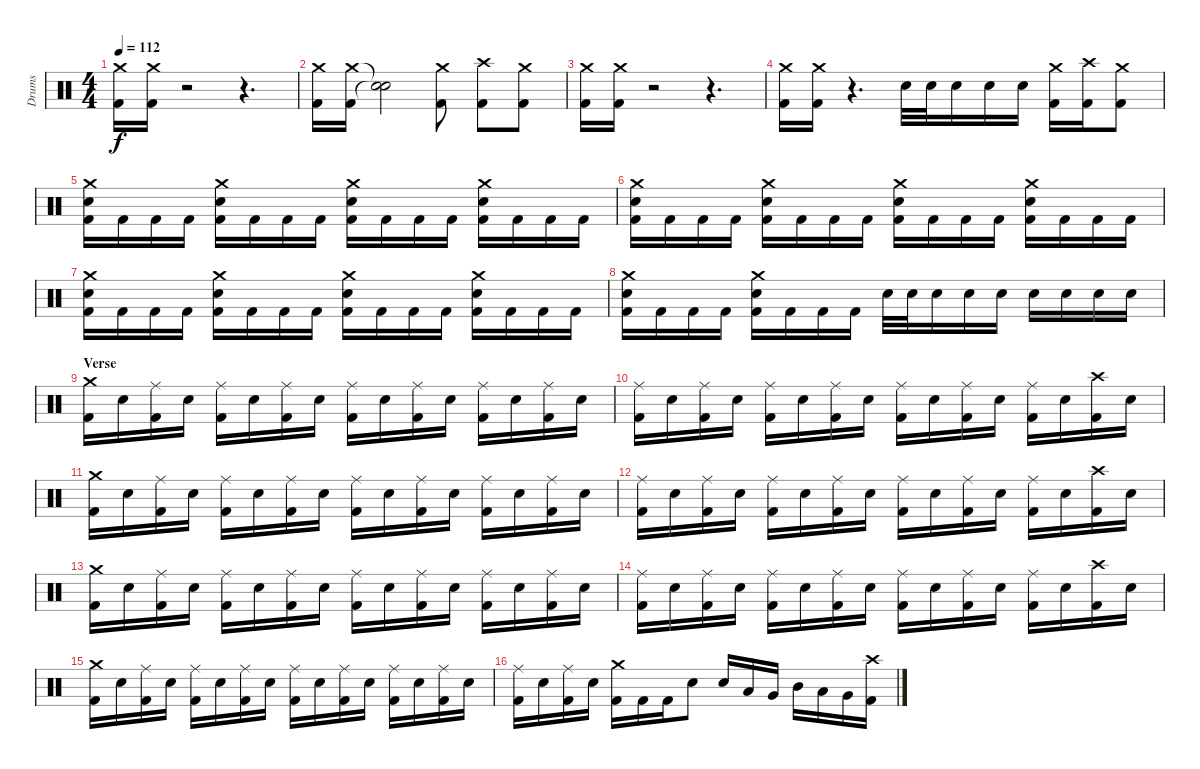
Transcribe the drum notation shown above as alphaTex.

\track ("Drums" "Drums") {instrument percussion}
\staff {score}
\articulation defaults
\ts (4 4)
\tempo 112
\clef neutral
\ks c
("Crash medium (hit)" "Kick (hit) 2").16{dy f} ("Crash medium (hit)" "Kick (hit) 2").16 r.2 r.4{d} |
("Crash medium (hit)" "Kick (hit) 2").16 ("Crash medium (hit)" "Kick (hit) 2").16 ("Snare (hit)"{t} "Snare (hit)"{t}).2 ("Crash medium (hit)" "Kick (hit) 2").8 ("Crash high (hit)" "Kick (hit) 2").8 ("Crash medium (hit)" "Kick (hit) 2").8 |
("Crash medium (hit)" "Kick (hit) 2").16 ("Crash medium (hit)" "Kick (hit) 2").16 r.2 r.4{d} |
("Crash medium (hit)" "Kick (hit) 2").16 ("Crash medium (hit)" "Kick (hit) 2").16 r.4{d} "Electric Snare (hit)".32 "Electric Snare (hit)".32 "Electric Snare (hit)".16 "Electric Snare (hit)".16 "Electric Snare (hit)".16 ("Crash medium (hit)" "Kick (hit) 2").16 ("Crash high (hit)" "Kick (hit) 2").16 ("Crash medium (hit)" "Kick (hit) 2").8 |
("Crash medium (hit)" "Electric Snare (hit)" "Kick (hit) 2").16 "Kick (hit) 2".16 "Kick (hit) 2".16 "Kick (hit) 2".16 ("Crash medium (hit)" "Electric Snare (hit)" "Kick (hit) 2").16 "Kick (hit) 2".16 "Kick (hit) 2".16 "Kick (hit) 2".16 ("Crash medium (hit)" "Electric Snare (hit)" "Kick (hit) 2").16 "Kick (hit) 2".16 "Kick (hit) 2".16 "Kick (hit) 2".16 ("Crash medium (hit)" "Electric Snare (hit)" "Kick (hit) 2").16 "Kick (hit) 2".16 "Kick (hit) 2".16 "Kick (hit) 2".16 |
("Crash medium (hit)" "Electric Snare (hit)" "Kick (hit) 2").16 "Kick (hit) 2".16 "Kick (hit) 2".16 "Kick (hit) 2".16 ("Crash medium (hit)" "Electric Snare (hit)" "Kick (hit) 2").16 "Kick (hit) 2".16 "Kick (hit) 2".16 "Kick (hit) 2".16 ("Crash medium (hit)" "Electric Snare (hit)" "Kick (hit) 2").16 "Kick (hit) 2".16 "Kick (hit) 2".16 "Kick (hit) 2".16 ("Crash medium (hit)" "Electric Snare (hit)" "Kick (hit) 2").16 "Kick (hit) 2".16 "Kick (hit) 2".16 "Kick (hit) 2".16 |
("Crash medium (hit)" "Electric Snare (hit)" "Kick (hit) 2").16 "Kick (hit) 2".16 "Kick (hit) 2".16 "Kick (hit) 2".16 ("Crash medium (hit)" "Electric Snare (hit)" "Kick (hit) 2").16 "Kick (hit) 2".16 "Kick (hit) 2".16 "Kick (hit) 2".16 ("Crash medium (hit)" "Electric Snare (hit)" "Kick (hit) 2").16 "Kick (hit) 2".16 "Kick (hit) 2".16 "Kick (hit) 2".16 ("Crash medium (hit)" "Electric Snare (hit)" "Kick (hit) 2").16 "Kick (hit) 2".16 "Kick (hit) 2".16 "Kick (hit) 2".16 |
("Crash medium (hit)" "Electric Snare (hit)" "Kick (hit) 2").16 "Kick (hit) 2".16 "Kick (hit) 2".16 "Kick (hit) 2".16 ("Crash medium (hit)" "Electric Snare (hit)" "Kick (hit) 2").16 "Kick (hit) 2".16 "Kick (hit) 2".16 "Kick (hit) 2".16 "Electric Snare (hit)".32 "Electric Snare (hit)".32 "Electric Snare (hit)".16 "Electric Snare (hit)".16 "Electric Snare (hit)".16 "Electric Snare (hit)".16 "Electric Snare (hit)".16 "Electric Snare (hit)".16 "Electric Snare (hit)".16 |
\section ("" "Verse")
("Crash medium (hit)" "Kick (hit) 2").16 "Electric Snare (hit)".16 ("Ride (middle)" "Kick (hit) 2").16 "Electric Snare (hit)".16 ("Ride (middle)" "Kick (hit) 2").16 "Electric Snare (hit)".16 ("Ride (middle)" "Kick (hit) 2").16 "Electric Snare (hit)".16 ("Ride (middle)" "Kick (hit) 2").16 "Electric Snare (hit)".16 ("Ride (middle)" "Kick (hit) 2").16 "Electric Snare (hit)".16 ("Ride (middle)" "Kick (hit) 2").16 "Electric Snare (hit)".16 ("Ride (middle)" "Kick (hit) 2").16 "Electric Snare (hit)".16 |
("Ride (middle)" "Kick (hit) 2").16 "Electric Snare (hit)".16 ("Ride (middle)" "Kick (hit) 2").16 "Electric Snare (hit)".16 ("Ride (middle)" "Kick (hit) 2").16 "Electric Snare (hit)".16 ("Ride (middle)" "Kick (hit) 2").16 "Electric Snare (hit)".16 ("Ride (middle)" "Kick (hit) 2").16 "Electric Snare (hit)".16 ("Ride (middle)" "Kick (hit) 2").16 "Electric Snare (hit)".16 ("Ride (middle)" "Kick (hit) 2").16 "Electric Snare (hit)".16 ("Crash high (hit)" "Kick (hit) 2").16 "Electric Snare (hit)".16 |
("Crash medium (hit)" "Kick (hit) 2").16 "Electric Snare (hit)".16 ("Ride (middle)" "Kick (hit) 2").16 "Electric Snare (hit)".16 ("Ride (middle)" "Kick (hit) 2").16 "Electric Snare (hit)".16 ("Ride (middle)" "Kick (hit) 2").16 "Electric Snare (hit)".16 ("Ride (middle)" "Kick (hit) 2").16 "Electric Snare (hit)".16 ("Ride (middle)" "Kick (hit) 2").16 "Electric Snare (hit)".16 ("Ride (middle)" "Kick (hit) 2").16 "Electric Snare (hit)".16 ("Ride (middle)" "Kick (hit) 2").16 "Electric Snare (hit)".16 |
("Ride (middle)" "Kick (hit) 2").16 "Electric Snare (hit)".16 ("Ride (middle)" "Kick (hit) 2").16 "Electric Snare (hit)".16 ("Ride (middle)" "Kick (hit) 2").16 "Electric Snare (hit)".16 ("Ride (middle)" "Kick (hit) 2").16 "Electric Snare (hit)".16 ("Ride (middle)" "Kick (hit) 2").16 "Electric Snare (hit)".16 ("Ride (middle)" "Kick (hit) 2").16 "Electric Snare (hit)".16 ("Ride (middle)" "Kick (hit) 2").16 "Electric Snare (hit)".16 ("Crash high (hit)" "Kick (hit) 2").16 "Electric Snare (hit)".16 |
("Crash medium (hit)" "Kick (hit) 2").16 "Electric Snare (hit)".16 ("Ride (middle)" "Kick (hit) 2").16 "Electric Snare (hit)".16 ("Ride (middle)" "Kick (hit) 2").16 "Electric Snare (hit)".16 ("Ride (middle)" "Kick (hit) 2").16 "Electric Snare (hit)".16 ("Ride (middle)" "Kick (hit) 2").16 "Electric Snare (hit)".16 ("Ride (middle)" "Kick (hit) 2").16 "Electric Snare (hit)".16 ("Ride (middle)" "Kick (hit) 2").16 "Electric Snare (hit)".16 ("Ride (middle)" "Kick (hit) 2").16 "Electric Snare (hit)".16 |
("Ride (middle)" "Kick (hit) 2").16 "Electric Snare (hit)".16 ("Ride (middle)" "Kick (hit) 2").16 "Electric Snare (hit)".16 ("Ride (middle)" "Kick (hit) 2").16 "Electric Snare (hit)".16 ("Ride (middle)" "Kick (hit) 2").16 "Electric Snare (hit)".16 ("Ride (middle)" "Kick (hit) 2").16 "Electric Snare (hit)".16 ("Ride (middle)" "Kick (hit) 2").16 "Electric Snare (hit)".16 ("Ride (middle)" "Kick (hit) 2").16 "Electric Snare (hit)".16 ("Crash high (hit)" "Kick (hit) 2").16 "Electric Snare (hit)".16 |
("Crash medium (hit)" "Kick (hit) 2").16 "Electric Snare (hit)".16 ("Ride (middle)" "Kick (hit) 2").16 "Electric Snare (hit)".16 ("Ride (middle)" "Kick (hit) 2").16 "Electric Snare (hit)".16 ("Ride (middle)" "Kick (hit) 2").16 "Electric Snare (hit)".16 ("Ride (middle)" "Kick (hit) 2").16 "Electric Snare (hit)".16 ("Ride (middle)" "Kick (hit) 2").16 "Electric Snare (hit)".16 ("Ride (middle)" "Kick (hit) 2").16 "Electric Snare (hit)".16 ("Ride (middle)" "Kick (hit) 2").16 "Electric Snare (hit)".16 |
("Ride (middle)" "Kick (hit) 2").16 "Electric Snare (hit)".16 ("Ride (middle)" "Kick (hit) 2").16 "Electric Snare (hit)".16 ("Crash medium (hit)" "Kick (hit) 2").16 "Kick (hit) 2".16 "Kick (hit) 2".16 "Electric Snare (hit)".8 "Electric Snare (hit)".16 "Low Tom (hit)".16 "Very Low Tom (hit)".16 "Mid Tom (hit)".16 "Low Tom (hit)".16 "Very Low Tom (hit)".16 ("Crash high (hit)" "Kick (hit) 2").16
